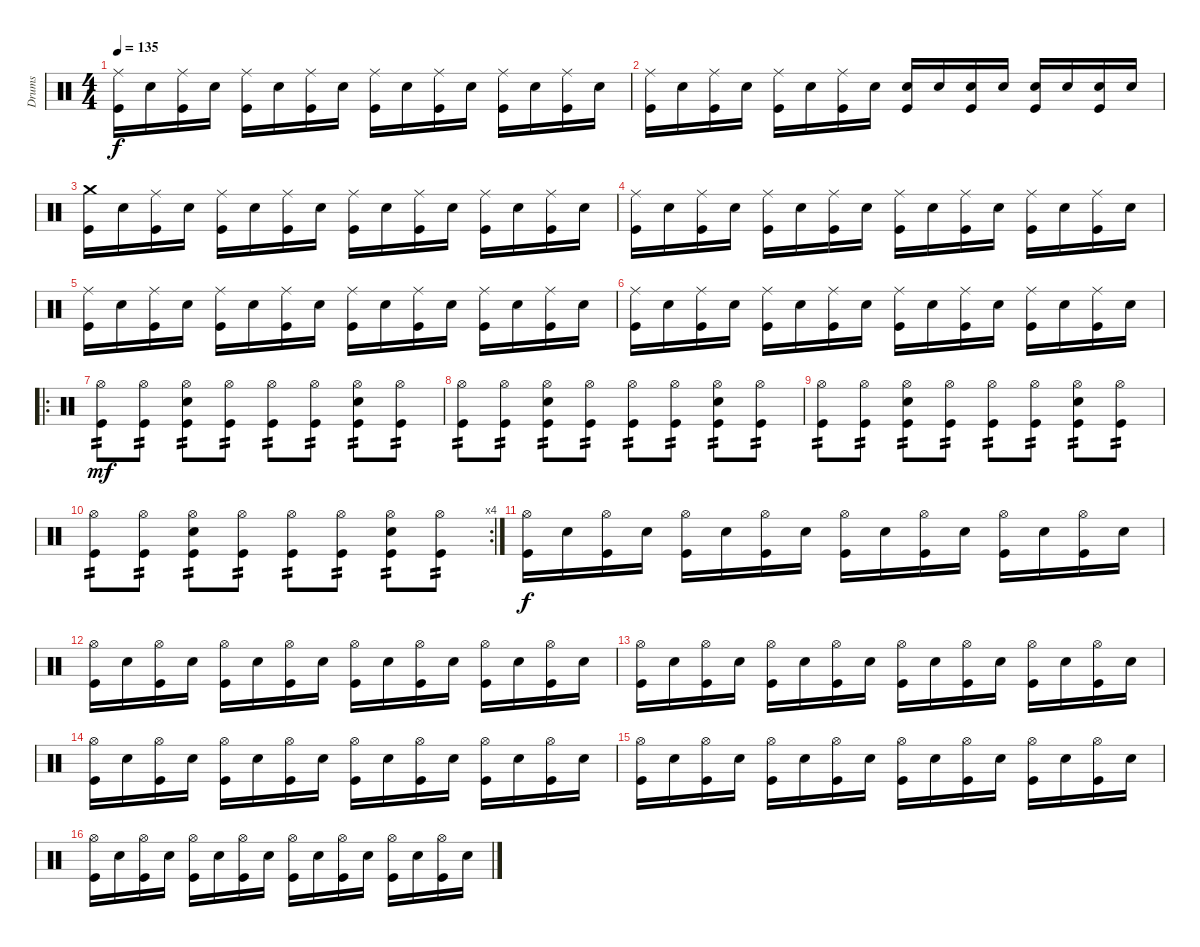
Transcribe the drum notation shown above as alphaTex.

\track ("Drums" "Drums") {instrument percussion}
\staff {score}
\articulation defaults
\ts (4 4)
\tempo 135
\clef neutral
\ks c
("Ride (middle)" "Kick (hit)").16{dy f} "Snare (hit) 2".16 ("Ride (middle)" "Kick (hit)").16 "Snare (hit) 2".16 ("Ride (middle)" "Kick (hit)").16 "Snare (hit) 2".16 ("Ride (middle)" "Kick (hit)").16 "Snare (hit) 2".16 ("Ride (middle)" "Kick (hit)").16 "Snare (hit) 2".16 ("Ride (middle)" "Kick (hit)").16 "Snare (hit) 2".16 ("Ride (middle)" "Kick (hit)").16 "Snare (hit) 2".16 ("Ride (middle)" "Kick (hit)").16 "Snare (hit) 2".16 |
("Ride (middle)" "Kick (hit)").16 "Snare (hit) 2".16 ("Ride (middle)" "Kick (hit)").16 "Snare (hit) 2".16 ("Ride (middle)" "Kick (hit)").16 "Snare (hit) 2".16 ("Ride (middle)" "Kick (hit)").16 "Snare (hit) 2".16 ("Electric Snare (hit)" "Kick (hit)").16 "Electric Snare (hit)".16 ("Electric Snare (hit)" "Kick (hit)").16 "Electric Snare (hit)".16 ("Electric Snare (hit)" "Kick (hit)").16 "Electric Snare (hit)".16 ("Electric Snare (hit)" "Kick (hit)").16 "Electric Snare (hit)".16 |
("Crash medium (hit)" "Kick (hit)").16 "Snare (hit) 2".16 ("Ride (middle)" "Kick (hit)").16 "Snare (hit) 2".16 ("Ride (middle)" "Kick (hit)").16 "Snare (hit) 2".16 ("Ride (middle)" "Kick (hit)").16 "Snare (hit) 2".16 ("Ride (middle)" "Kick (hit)").16 "Snare (hit) 2".16 ("Ride (middle)" "Kick (hit)").16 "Snare (hit) 2".16 ("Ride (middle)" "Kick (hit)").16 "Snare (hit) 2".16 ("Ride (middle)" "Kick (hit)").16 "Snare (hit) 2".16 |
("Ride (middle)" "Kick (hit)").16 "Snare (hit) 2".16 ("Ride (middle)" "Kick (hit)").16 "Snare (hit) 2".16 ("Ride (middle)" "Kick (hit)").16 "Snare (hit) 2".16 ("Ride (middle)" "Kick (hit)").16 "Snare (hit) 2".16 ("Ride (middle)" "Kick (hit)").16 "Snare (hit) 2".16 ("Ride (middle)" "Kick (hit)").16 "Snare (hit) 2".16 ("Ride (middle)" "Kick (hit)").16 "Snare (hit) 2".16 ("Ride (middle)" "Kick (hit)").16 "Snare (hit) 2".16 |
("Ride (middle)" "Kick (hit)").16 "Snare (hit) 2".16 ("Ride (middle)" "Kick (hit)").16 "Snare (hit) 2".16 ("Ride (middle)" "Kick (hit)").16 "Snare (hit) 2".16 ("Ride (middle)" "Kick (hit)").16 "Snare (hit) 2".16 ("Ride (middle)" "Kick (hit)").16 "Snare (hit) 2".16 ("Ride (middle)" "Kick (hit)").16 "Snare (hit) 2".16 ("Ride (middle)" "Kick (hit)").16 "Snare (hit) 2".16 ("Ride (middle)" "Kick (hit)").16 "Snare (hit) 2".16 |
("Ride (middle)" "Kick (hit)").16 "Snare (hit) 2".16 ("Ride (middle)" "Kick (hit)").16 "Snare (hit) 2".16 ("Ride (middle)" "Kick (hit)").16 "Snare (hit) 2".16 ("Ride (middle)" "Kick (hit)").16 "Snare (hit) 2".16 ("Ride (middle)" "Kick (hit)").16 "Snare (hit) 2".16 ("Ride (middle)" "Kick (hit)").16 "Snare (hit) 2".16 ("Ride (middle)" "Kick (hit)").16 "Snare (hit) 2".16 ("Ride (middle)" "Kick (hit)").16 "Snare (hit) 2".16 |
\ro
("Hi-Hat (open)" "Kick (hit)").8{tp 2 dy mf} ("Hi-Hat (open)" "Kick (hit)").8{tp 2} ("Hi-Hat (open)" "Electric Snare (hit)" "Kick (hit)").8{tp 2} ("Hi-Hat (open)" "Kick (hit)").8{tp 2} ("Hi-Hat (open)" "Kick (hit)").8{tp 2} ("Hi-Hat (open)" "Kick (hit)").8{tp 2} ("Hi-Hat (open)" "Electric Snare (hit)" "Kick (hit)").8{tp 2} ("Hi-Hat (open)" "Kick (hit)").8{tp 2} |
("Hi-Hat (open)" "Kick (hit)").8{tp 2} ("Hi-Hat (open)" "Kick (hit)").8{tp 2} ("Hi-Hat (open)" "Electric Snare (hit)" "Kick (hit)").8{tp 2} ("Hi-Hat (open)" "Kick (hit)").8{tp 2} ("Hi-Hat (open)" "Kick (hit)").8{tp 2} ("Hi-Hat (open)" "Kick (hit)").8{tp 2} ("Hi-Hat (open)" "Electric Snare (hit)" "Kick (hit)").8{tp 2} ("Hi-Hat (open)" "Kick (hit)").8{tp 2} |
("Hi-Hat (open)" "Kick (hit)").8{tp 2} ("Hi-Hat (open)" "Kick (hit)").8{tp 2} ("Hi-Hat (open)" "Electric Snare (hit)" "Kick (hit)").8{tp 2} ("Hi-Hat (open)" "Kick (hit)").8{tp 2} ("Hi-Hat (open)" "Kick (hit)").8{tp 2} ("Hi-Hat (open)" "Kick (hit)").8{tp 2} ("Hi-Hat (open)" "Electric Snare (hit)" "Kick (hit)").8{tp 2} ("Hi-Hat (open)" "Kick (hit)").8{tp 2} |
\rc 4
("Hi-Hat (open)" "Kick (hit)").8{tp 2} ("Hi-Hat (open)" "Kick (hit)").8{tp 2} ("Hi-Hat (open)" "Electric Snare (hit)" "Kick (hit)").8{tp 2} ("Hi-Hat (open)" "Kick (hit)").8{tp 2} ("Hi-Hat (open)" "Kick (hit)").8{tp 2} ("Hi-Hat (open)" "Kick (hit)").8{tp 2} ("Hi-Hat (open)" "Electric Snare (hit)" "Kick (hit)").8{tp 2} ("Hi-Hat (open)" "Kick (hit)").8{tp 2} |
("Hi-Hat (open)" "Kick (hit)").16{dy f} "Snare (hit) 2".16 ("Hi-Hat (open)" "Kick (hit)").16 "Snare (hit) 2".16 ("Hi-Hat (open)" "Kick (hit)").16 "Snare (hit) 2".16 ("Hi-Hat (open)" "Kick (hit)").16 "Snare (hit) 2".16 ("Hi-Hat (open)" "Kick (hit)").16 "Snare (hit) 2".16 ("Hi-Hat (open)" "Kick (hit)").16 "Snare (hit) 2".16 ("Hi-Hat (open)" "Kick (hit)").16 "Snare (hit) 2".16 ("Hi-Hat (open)" "Kick (hit)").16 "Snare (hit) 2".16 |
("Hi-Hat (open)" "Kick (hit)").16 "Snare (hit) 2".16 ("Hi-Hat (open)" "Kick (hit)").16 "Snare (hit) 2".16 ("Hi-Hat (open)" "Kick (hit)").16 "Snare (hit) 2".16 ("Hi-Hat (open)" "Kick (hit)").16 "Snare (hit) 2".16 ("Hi-Hat (open)" "Kick (hit)").16 "Snare (hit) 2".16 ("Hi-Hat (open)" "Kick (hit)").16 "Snare (hit) 2".16 ("Hi-Hat (open)" "Kick (hit)").16 "Snare (hit) 2".16 ("Hi-Hat (open)" "Kick (hit)").16 "Snare (hit) 2".16 |
("Hi-Hat (open)" "Kick (hit)").16 "Snare (hit) 2".16 ("Hi-Hat (open)" "Kick (hit)").16 "Snare (hit) 2".16 ("Hi-Hat (open)" "Kick (hit)").16 "Snare (hit) 2".16 ("Hi-Hat (open)" "Kick (hit)").16 "Snare (hit) 2".16 ("Hi-Hat (open)" "Kick (hit)").16 "Snare (hit) 2".16 ("Hi-Hat (open)" "Kick (hit)").16 "Snare (hit) 2".16 ("Hi-Hat (open)" "Kick (hit)").16 "Snare (hit) 2".16 ("Hi-Hat (open)" "Kick (hit)").16 "Snare (hit) 2".16 |
("Hi-Hat (open)" "Kick (hit)").16 "Snare (hit) 2".16 ("Hi-Hat (open)" "Kick (hit)").16 "Snare (hit) 2".16 ("Hi-Hat (open)" "Kick (hit)").16 "Snare (hit) 2".16 ("Hi-Hat (open)" "Kick (hit)").16 "Snare (hit) 2".16 ("Hi-Hat (open)" "Kick (hit)").16 "Snare (hit) 2".16 ("Hi-Hat (open)" "Kick (hit)").16 "Snare (hit) 2".16 ("Hi-Hat (open)" "Kick (hit)").16 "Snare (hit) 2".16 ("Hi-Hat (open)" "Kick (hit)").16 "Snare (hit) 2".16 |
("Hi-Hat (open)" "Kick (hit)").16 "Snare (hit) 2".16 ("Hi-Hat (open)" "Kick (hit)").16 "Snare (hit) 2".16 ("Hi-Hat (open)" "Kick (hit)").16 "Snare (hit) 2".16 ("Hi-Hat (open)" "Kick (hit)").16 "Snare (hit) 2".16 ("Hi-Hat (open)" "Kick (hit)").16 "Snare (hit) 2".16 ("Hi-Hat (open)" "Kick (hit)").16 "Snare (hit) 2".16 ("Hi-Hat (open)" "Kick (hit)").16 "Snare (hit) 2".16 ("Hi-Hat (open)" "Kick (hit)").16 "Snare (hit) 2".16 |
("Hi-Hat (open)" "Kick (hit)").16 "Snare (hit) 2".16 ("Hi-Hat (open)" "Kick (hit)").16 "Snare (hit) 2".16 ("Hi-Hat (open)" "Kick (hit)").16 "Snare (hit) 2".16 ("Hi-Hat (open)" "Kick (hit)").16 "Snare (hit) 2".16 ("Hi-Hat (open)" "Kick (hit)").16 "Snare (hit) 2".16 ("Hi-Hat (open)" "Kick (hit)").16 "Snare (hit) 2".16 ("Hi-Hat (open)" "Kick (hit)").16 "Snare (hit) 2".16 ("Hi-Hat (open)" "Kick (hit)").16 "Snare (hit) 2".16
